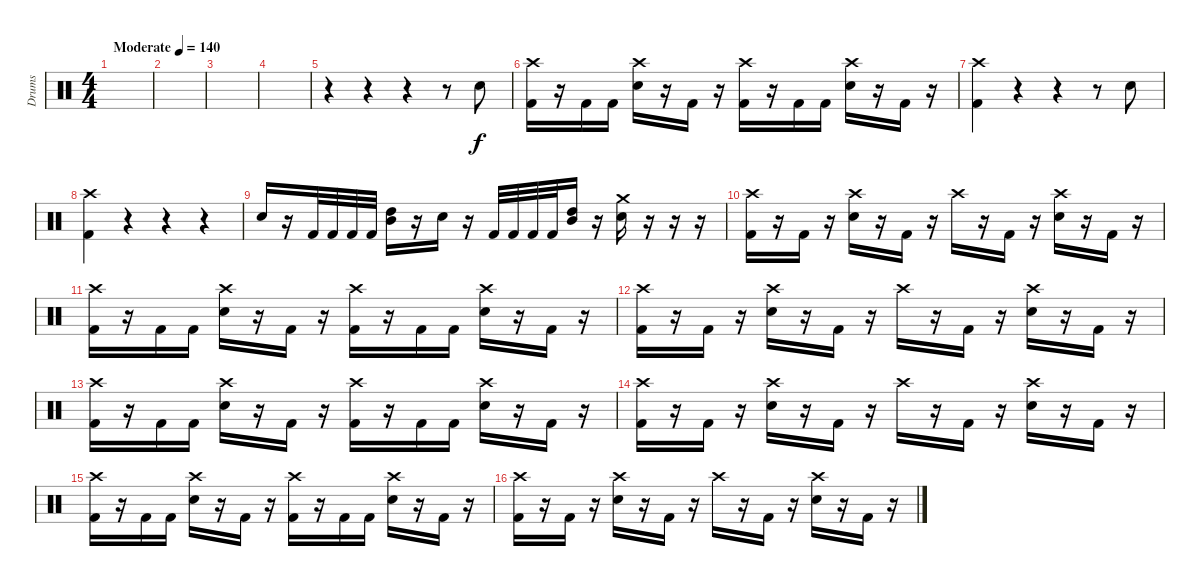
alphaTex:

\track ("Drums" "Drums") {instrument percussion}
\staff {score}
\articulation defaults
\ts (4 4)
\tempo (140 "Moderate")
\clef neutral
\ks c
|
|
|
|
r.4 r.4 r.4 r.8 "Electric Snare (hit)".8 |
("Crash high (hit)" "Kick (hit) 2").16 r.16 "Kick (hit) 2".16 "Kick (hit) 2".16 ("Crash high (hit)" "Electric Snare (hit)").16 r.16 "Kick (hit) 2".16 r.16 ("Crash high (hit)" "Kick (hit) 2").16 r.16 "Kick (hit) 2".16 "Kick (hit) 2".16 ("Crash high (hit)" "Electric Snare (hit)").16 r.16 "Kick (hit) 2".16 r.16 |
("Crash high (hit)" "Kick (hit) 2").4 r.4 r.4 r.8 "Electric Snare (hit)".8 |
("Crash high (hit)" "Kick (hit) 2").4 r.4 r.4 r.4 |
"Electric Snare (hit)".16 r.16 "Kick (hit) 2".32 "Kick (hit) 2".32 "Kick (hit) 2".32 "Kick (hit) 2".32 ("Mid Tom (hit)" "High Tom (hit)").16 r.16 "Electric Snare (hit)".16 r.16 "Kick (hit) 2".32 "Kick (hit) 2".32 "Kick (hit) 2".32 "Kick (hit) 2".32 ("Mid Tom (hit)" "High Tom (hit)").16 r.16 ("Crash medium (hit)" "Electric Snare (hit)").16 r.16 r.16 r.16 |
("Crash high (hit)" "Kick (hit) 2").16 r.16 "Kick (hit) 2".16 r.16 ("Crash high (hit)" "Electric Snare (hit)").16 r.16 "Kick (hit) 2".16 r.16 "Crash high (hit)".16 r.16 "Kick (hit) 2".16 r.16 ("Crash high (hit)" "Electric Snare (hit)").16 r.16 "Kick (hit) 2".16 r.16 |
("Crash high (hit)" "Kick (hit) 2").16 r.16 "Kick (hit) 2".16 "Kick (hit) 2".16 ("Crash high (hit)" "Electric Snare (hit)").16 r.16 "Kick (hit) 2".16 r.16 ("Crash high (hit)" "Kick (hit) 2").16 r.16 "Kick (hit) 2".16 "Kick (hit) 2".16 ("Crash high (hit)" "Electric Snare (hit)").16 r.16 "Kick (hit) 2".16 r.16 |
("Crash high (hit)" "Kick (hit) 2").16 r.16 "Kick (hit) 2".16 r.16 ("Crash high (hit)" "Electric Snare (hit)").16 r.16 "Kick (hit) 2".16 r.16 "Crash high (hit)".16 r.16 "Kick (hit) 2".16 r.16 ("Crash high (hit)" "Electric Snare (hit)").16 r.16 "Kick (hit) 2".16 r.16 |
("Crash high (hit)" "Kick (hit) 2").16 r.16 "Kick (hit) 2".16 "Kick (hit) 2".16 ("Crash high (hit)" "Electric Snare (hit)").16 r.16 "Kick (hit) 2".16 r.16 ("Crash high (hit)" "Kick (hit) 2").16 r.16 "Kick (hit) 2".16 "Kick (hit) 2".16 ("Crash high (hit)" "Electric Snare (hit)").16 r.16 "Kick (hit) 2".16 r.16 |
("Crash high (hit)" "Kick (hit) 2").16 r.16 "Kick (hit) 2".16 r.16 ("Crash high (hit)" "Electric Snare (hit)").16 r.16 "Kick (hit) 2".16 r.16 "Crash high (hit)".16 r.16 "Kick (hit) 2".16 r.16 ("Crash high (hit)" "Electric Snare (hit)").16 r.16 "Kick (hit) 2".16 r.16 |
("Crash high (hit)" "Kick (hit) 2").16 r.16 "Kick (hit) 2".16 "Kick (hit) 2".16 ("Crash high (hit)" "Electric Snare (hit)").16 r.16 "Kick (hit) 2".16 r.16 ("Crash high (hit)" "Kick (hit) 2").16 r.16 "Kick (hit) 2".16 "Kick (hit) 2".16 ("Crash high (hit)" "Electric Snare (hit)").16 r.16 "Kick (hit) 2".16 r.16 |
("Crash high (hit)" "Kick (hit) 2").16 r.16 "Kick (hit) 2".16 r.16 ("Crash high (hit)" "Electric Snare (hit)").16 r.16 "Kick (hit) 2".16 r.16 "Crash high (hit)".16 r.16 "Kick (hit) 2".16 r.16 ("Crash high (hit)" "Electric Snare (hit)").16 r.16 "Kick (hit) 2".16 r.16
